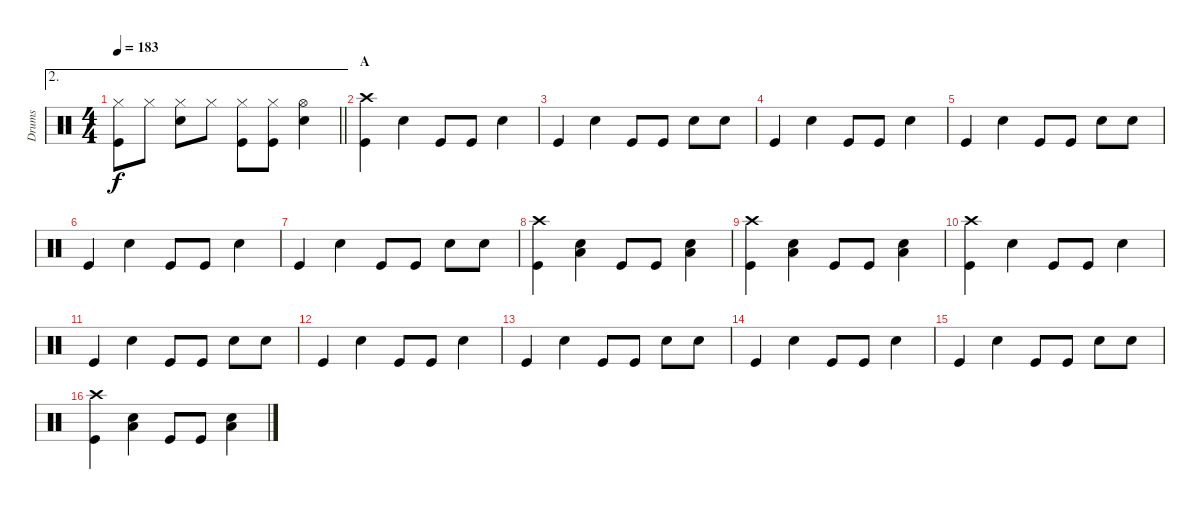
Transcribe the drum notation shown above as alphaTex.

\track ("Drums" "Drums") {instrument percussion}
\staff {score}
\articulation defaults
\ae 2
\ts (4 4)
\tempo 183
\clef neutral
\barLineRight lightlight
\ks c
("Hi-Hat (closed)" "Kick (hit)").8{dy f} "Hi-Hat (closed)".8 ("Hi-Hat (closed)" "Electric Snare (hit)").8 "Hi-Hat (closed)".8 ("Hi-Hat (closed)" "Kick (hit)").8 ("Hi-Hat (closed)" "Kick (hit)").8 ("Hi-Hat (open)" "Electric Snare (hit)").4 |
\section ("" "A")
("Crash high (hit)" "Kick (hit)").4 "Electric Snare (hit)".4 "Kick (hit)".8 "Kick (hit)".8 "Electric Snare (hit)".4 |
"Kick (hit)".4 "Electric Snare (hit)".4 "Kick (hit)".8 "Kick (hit)".8 "Electric Snare (hit)".8 "Electric Snare (hit)".8 |
"Kick (hit)".4 "Electric Snare (hit)".4 "Kick (hit)".8 "Kick (hit)".8 "Electric Snare (hit)".4 |
"Kick (hit)".4 "Electric Snare (hit)".4 "Kick (hit)".8 "Kick (hit)".8 "Electric Snare (hit)".8 "Electric Snare (hit)".8 |
"Kick (hit)".4 "Electric Snare (hit)".4 "Kick (hit)".8 "Kick (hit)".8 "Electric Snare (hit)".4 |
"Kick (hit)".4 "Electric Snare (hit)".4 "Kick (hit)".8 "Kick (hit)".8 "Electric Snare (hit)".8 "Electric Snare (hit)".8 |
("Crash high (hit)" "Kick (hit)").4 ("Electric Snare (hit)" "Low Tom (hit)").4 "Kick (hit)".8 "Kick (hit)".8 ("Electric Snare (hit)" "Low Tom (hit)").4 |
("Crash high (hit)" "Kick (hit)").4 ("Electric Snare (hit)" "Low Tom (hit)").4 "Kick (hit)".8 "Kick (hit)".8 ("Electric Snare (hit)" "Low Tom (hit)").4 |
("Crash high (hit)" "Kick (hit)").4 "Electric Snare (hit)".4 "Kick (hit)".8 "Kick (hit)".8 "Electric Snare (hit)".4 |
"Kick (hit)".4 "Electric Snare (hit)".4 "Kick (hit)".8 "Kick (hit)".8 "Electric Snare (hit)".8 "Electric Snare (hit)".8 |
"Kick (hit)".4 "Electric Snare (hit)".4 "Kick (hit)".8 "Kick (hit)".8 "Electric Snare (hit)".4 |
"Kick (hit)".4 "Electric Snare (hit)".4 "Kick (hit)".8 "Kick (hit)".8 "Electric Snare (hit)".8 "Electric Snare (hit)".8 |
"Kick (hit)".4 "Electric Snare (hit)".4 "Kick (hit)".8 "Kick (hit)".8 "Electric Snare (hit)".4 |
"Kick (hit)".4 "Electric Snare (hit)".4 "Kick (hit)".8 "Kick (hit)".8 "Electric Snare (hit)".8 "Electric Snare (hit)".8 |
("Crash high (hit)" "Kick (hit)").4 ("Electric Snare (hit)" "Low Tom (hit)").4 "Kick (hit)".8 "Kick (hit)".8 ("Electric Snare (hit)" "Low Tom (hit)").4
